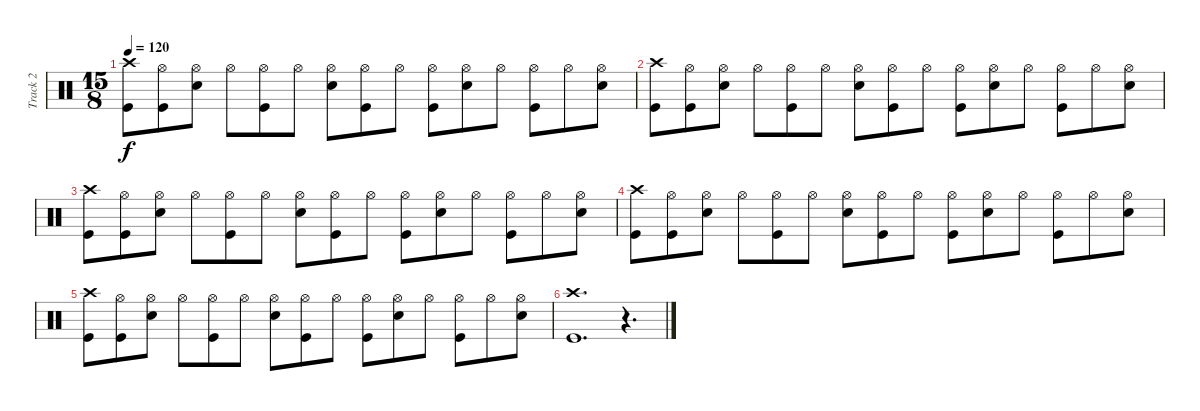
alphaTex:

\track ("Track 2" "Track 2") {instrument percussion}
\staff {score}
\articulation defaults
\ts (15 8)
\tempo 120
\clef neutral
\ks c
("Crash high (hit)" "Kick (hit)").8{dy f} ("Hi-Hat (open)" "Kick (hit)").8 ("Hi-Hat (open)" "Snare (hit) 2").8 "Hi-Hat (open)".8 ("Hi-Hat (open)" "Kick (hit)").8 "Hi-Hat (open)".8 ("Hi-Hat (open)" "Snare (hit) 2").8 ("Hi-Hat (open)" "Kick (hit)").8 "Hi-Hat (open)".8 ("Hi-Hat (open)" "Kick (hit)").8 ("Hi-Hat (open)" "Snare (hit) 2").8 "Hi-Hat (open)".8 ("Hi-Hat (open)" "Kick (hit)").8 "Hi-Hat (open)".8 ("Hi-Hat (open)" "Snare (hit) 2").8 |
("Crash high (hit)" "Kick (hit)").8 ("Hi-Hat (open)" "Kick (hit)").8 ("Hi-Hat (open)" "Snare (hit) 2").8 "Hi-Hat (open)".8 ("Hi-Hat (open)" "Kick (hit)").8 "Hi-Hat (open)".8 ("Hi-Hat (open)" "Snare (hit) 2").8 ("Hi-Hat (open)" "Kick (hit)").8 "Hi-Hat (open)".8 ("Hi-Hat (open)" "Kick (hit)").8 ("Hi-Hat (open)" "Snare (hit) 2").8 "Hi-Hat (open)".8 ("Hi-Hat (open)" "Kick (hit)").8 "Hi-Hat (open)".8 ("Hi-Hat (open)" "Snare (hit) 2").8 |
("Crash high (hit)" "Kick (hit)").8 ("Hi-Hat (open)" "Kick (hit)").8 ("Hi-Hat (open)" "Snare (hit) 2").8 "Hi-Hat (open)".8 ("Hi-Hat (open)" "Kick (hit)").8 "Hi-Hat (open)".8 ("Hi-Hat (open)" "Snare (hit) 2").8 ("Hi-Hat (open)" "Kick (hit)").8 "Hi-Hat (open)".8 ("Hi-Hat (open)" "Kick (hit)").8 ("Hi-Hat (open)" "Snare (hit) 2").8 "Hi-Hat (open)".8 ("Hi-Hat (open)" "Kick (hit)").8 "Hi-Hat (open)".8 ("Hi-Hat (open)" "Snare (hit) 2").8 |
("Crash high (hit)" "Kick (hit)").8 ("Hi-Hat (open)" "Kick (hit)").8 ("Hi-Hat (open)" "Snare (hit) 2").8 "Hi-Hat (open)".8 ("Hi-Hat (open)" "Kick (hit)").8 "Hi-Hat (open)".8 ("Hi-Hat (open)" "Snare (hit) 2").8 ("Hi-Hat (open)" "Kick (hit)").8 "Hi-Hat (open)".8 ("Hi-Hat (open)" "Kick (hit)").8 ("Hi-Hat (open)" "Snare (hit) 2").8 "Hi-Hat (open)".8 ("Hi-Hat (open)" "Kick (hit)").8 "Hi-Hat (open)".8 ("Hi-Hat (open)" "Snare (hit) 2").8 |
("Crash high (hit)" "Kick (hit)").8 ("Hi-Hat (open)" "Kick (hit)").8 ("Hi-Hat (open)" "Snare (hit) 2").8 "Hi-Hat (open)".8 ("Hi-Hat (open)" "Kick (hit)").8 "Hi-Hat (open)".8 ("Hi-Hat (open)" "Snare (hit) 2").8 ("Hi-Hat (open)" "Kick (hit)").8 "Hi-Hat (open)".8 ("Hi-Hat (open)" "Kick (hit)").8 ("Hi-Hat (open)" "Snare (hit) 2").8 "Hi-Hat (open)".8 ("Hi-Hat (open)" "Kick (hit)").8 "Hi-Hat (open)".8 ("Hi-Hat (open)" "Snare (hit) 2").8 |
("Crash high (hit)" "Kick (hit)").1{d} r.4{d}
